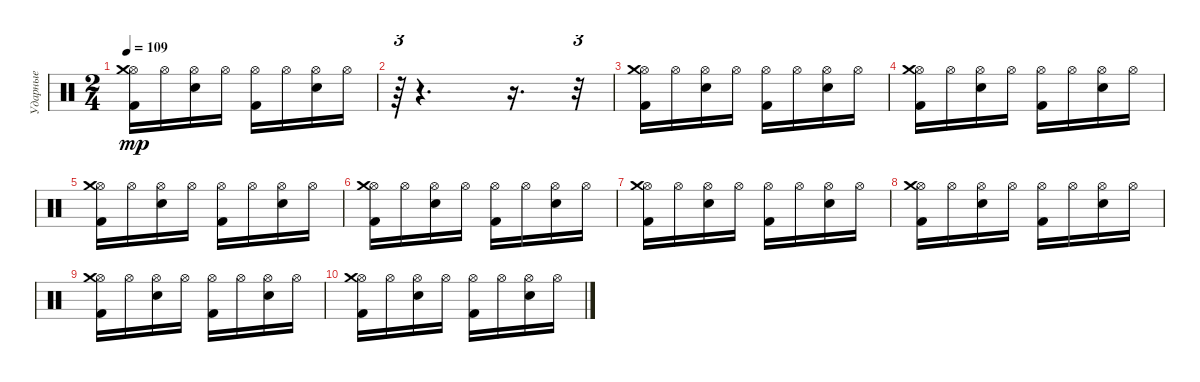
\track ("Ударные" "Ударные") {instrument percussion}
\staff {score}
\articulation defaults
\ts (2 4)
\tempo 109
\clef neutral
\ks c
("Kick (hit) 2" "Hi-Hat (open)" "Crash medium (hit)").16{dy mp} "Hi-Hat (open)".16 ("Electric Snare (hit)" "Hi-Hat (open)").16 "Hi-Hat (open)".16 ("Kick (hit) 2" "Hi-Hat (open)").16 "Hi-Hat (open)".16 ("Electric Snare (hit)" "Hi-Hat (open)").16 "Hi-Hat (open)".16 |
r.64{tu (3 2)} r.4{d} r.16{d} r.32{tu (3 2)} |
("Kick (hit) 2" "Hi-Hat (open)" "Crash medium (hit)").16 "Hi-Hat (open)".16 ("Electric Snare (hit)" "Hi-Hat (open)").16 "Hi-Hat (open)".16 ("Kick (hit) 2" "Hi-Hat (open)").16 "Hi-Hat (open)".16 ("Electric Snare (hit)" "Hi-Hat (open)").16 "Hi-Hat (open)".16 |
("Kick (hit) 2" "Hi-Hat (open)" "Crash medium (hit)").16 "Hi-Hat (open)".16 ("Electric Snare (hit)" "Hi-Hat (open)").16 "Hi-Hat (open)".16 ("Kick (hit) 2" "Hi-Hat (open)").16 "Hi-Hat (open)".16 ("Electric Snare (hit)" "Hi-Hat (open)").16 "Hi-Hat (open)".16 |
("Kick (hit) 2" "Hi-Hat (open)" "Crash medium (hit)").16 "Hi-Hat (open)".16 ("Electric Snare (hit)" "Hi-Hat (open)").16 "Hi-Hat (open)".16 ("Kick (hit) 2" "Hi-Hat (open)").16 "Hi-Hat (open)".16 ("Electric Snare (hit)" "Hi-Hat (open)").16 "Hi-Hat (open)".16 |
("Kick (hit) 2" "Hi-Hat (open)" "Crash medium (hit)").16 "Hi-Hat (open)".16 ("Electric Snare (hit)" "Hi-Hat (open)").16 "Hi-Hat (open)".16 ("Kick (hit) 2" "Hi-Hat (open)").16 "Hi-Hat (open)".16 ("Electric Snare (hit)" "Hi-Hat (open)").16 "Hi-Hat (open)".16 |
("Kick (hit) 2" "Hi-Hat (open)" "Crash medium (hit)").16 "Hi-Hat (open)".16 ("Electric Snare (hit)" "Hi-Hat (open)").16 "Hi-Hat (open)".16 ("Kick (hit) 2" "Hi-Hat (open)").16 "Hi-Hat (open)".16 ("Electric Snare (hit)" "Hi-Hat (open)").16 "Hi-Hat (open)".16 |
("Kick (hit) 2" "Hi-Hat (open)" "Crash medium (hit)").16 "Hi-Hat (open)".16 ("Electric Snare (hit)" "Hi-Hat (open)").16 "Hi-Hat (open)".16 ("Kick (hit) 2" "Hi-Hat (open)").16 "Hi-Hat (open)".16 ("Electric Snare (hit)" "Hi-Hat (open)").16 "Hi-Hat (open)".16 |
("Kick (hit) 2" "Hi-Hat (open)" "Crash medium (hit)").16 "Hi-Hat (open)".16 ("Electric Snare (hit)" "Hi-Hat (open)").16 "Hi-Hat (open)".16 ("Kick (hit) 2" "Hi-Hat (open)").16 "Hi-Hat (open)".16 ("Electric Snare (hit)" "Hi-Hat (open)").16 "Hi-Hat (open)".16 |
("Kick (hit) 2" "Hi-Hat (open)" "Crash medium (hit)").16 "Hi-Hat (open)".16 ("Electric Snare (hit)" "Hi-Hat (open)").16 "Hi-Hat (open)".16 ("Kick (hit) 2" "Hi-Hat (open)").16 "Hi-Hat (open)".16 ("Electric Snare (hit)" "Hi-Hat (open)").16 "Hi-Hat (open)".16
